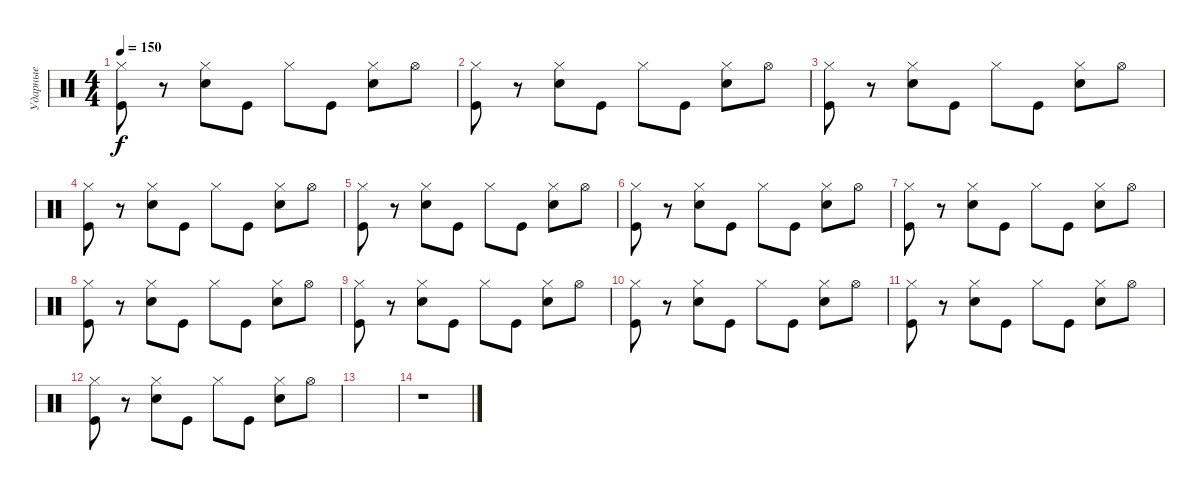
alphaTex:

\track ("Ударные" "Ударные") {instrument percussion}
\staff {score}
\articulation defaults
\ts (4 4)
\tempo 150
\clef neutral
\ks c
("Kick (hit)" "Hi-Hat (closed)").8{dy f} r.8 ("Hand Clap (hit)" "Hi-Hat (closed)").8 "Kick (hit)".8 "Hi-Hat (closed)".8 "Kick (hit)".8 ("Hand Clap (hit)" "Hi-Hat (closed)").8 "Hi-Hat (open)".8 |
("Kick (hit)" "Hi-Hat (closed)").8 r.8 ("Hand Clap (hit)" "Hi-Hat (closed)").8 "Kick (hit)".8 "Hi-Hat (closed)".8 "Kick (hit)".8 ("Hand Clap (hit)" "Hi-Hat (closed)").8 "Hi-Hat (open)".8 |
("Kick (hit)" "Hi-Hat (closed)").8 r.8 ("Hand Clap (hit)" "Hi-Hat (closed)").8 "Kick (hit)".8 "Hi-Hat (closed)".8 "Kick (hit)".8 ("Hand Clap (hit)" "Hi-Hat (closed)").8 "Hi-Hat (open)".8 |
("Kick (hit)" "Hi-Hat (closed)").8 r.8 ("Hand Clap (hit)" "Hi-Hat (closed)").8 "Kick (hit)".8 "Hi-Hat (closed)".8 "Kick (hit)".8 ("Hand Clap (hit)" "Hi-Hat (closed)").8 "Hi-Hat (open)".8 |
("Kick (hit)" "Hi-Hat (closed)").8 r.8 ("Hand Clap (hit)" "Hi-Hat (closed)").8 "Kick (hit)".8 "Hi-Hat (closed)".8 "Kick (hit)".8 ("Hand Clap (hit)" "Hi-Hat (closed)").8 "Hi-Hat (open)".8 |
("Kick (hit)" "Hi-Hat (closed)").8 r.8 ("Hand Clap (hit)" "Hi-Hat (closed)").8 "Kick (hit)".8 "Hi-Hat (closed)".8 "Kick (hit)".8 ("Hand Clap (hit)" "Hi-Hat (closed)").8 "Hi-Hat (open)".8 |
("Kick (hit)" "Hi-Hat (closed)").8 r.8 ("Hand Clap (hit)" "Hi-Hat (closed)").8 "Kick (hit)".8 "Hi-Hat (closed)".8 "Kick (hit)".8 ("Hand Clap (hit)" "Hi-Hat (closed)").8 "Hi-Hat (open)".8 |
("Kick (hit)" "Hi-Hat (closed)").8 r.8 ("Hand Clap (hit)" "Hi-Hat (closed)").8 "Kick (hit)".8 "Hi-Hat (closed)".8 "Kick (hit)".8 ("Hand Clap (hit)" "Hi-Hat (closed)").8 "Hi-Hat (open)".8 |
("Kick (hit)" "Hi-Hat (closed)").8 r.8 ("Hand Clap (hit)" "Hi-Hat (closed)").8 "Kick (hit)".8 "Hi-Hat (closed)".8 "Kick (hit)".8 ("Hand Clap (hit)" "Hi-Hat (closed)").8 "Hi-Hat (open)".8 |
("Kick (hit)" "Hi-Hat (closed)").8 r.8 ("Hand Clap (hit)" "Hi-Hat (closed)").8 "Kick (hit)".8 "Hi-Hat (closed)".8 "Kick (hit)".8 ("Hand Clap (hit)" "Hi-Hat (closed)").8 "Hi-Hat (open)".8 |
("Kick (hit)" "Hi-Hat (closed)").8 r.8 ("Hand Clap (hit)" "Hi-Hat (closed)").8 "Kick (hit)".8 "Hi-Hat (closed)".8 "Kick (hit)".8 ("Hand Clap (hit)" "Hi-Hat (closed)").8 "Hi-Hat (open)".8 |
("Kick (hit)" "Hi-Hat (closed)").8 r.8 ("Hand Clap (hit)" "Hi-Hat (closed)").8 "Kick (hit)".8 "Hi-Hat (closed)".8 "Kick (hit)".8 ("Hand Clap (hit)" "Hi-Hat (closed)").8 "Hi-Hat (open)".8 |
|
r.1
